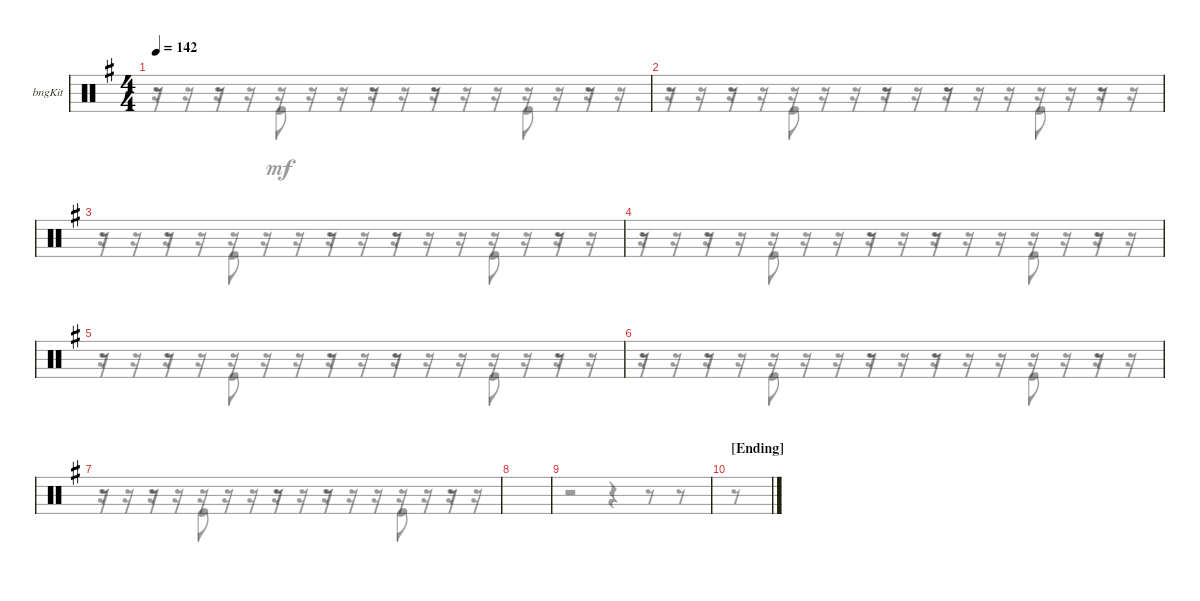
\bracketExtendMode groupsimilarinstruments
\firstSystemTrackNameOrientation horizontal
\otherSystemsTrackNameOrientation horizontal
\track ("Bongos" "bngKit") {instrument percussion}
\staff {score}
\articulation defaults
\voice
\ts (4 4)
\tempo 142
\clef neutral
\ks eminor
|
|
|
|
|
|
|
|
|
\section ("" "[Ending] ")
|
\voice
\clef neutral
\ks eminor
r.16{dy mf} r.16 r.16 r.16 r.16 r.16 r.16 r.16 r.16 r.16 r.16 r.16 r.16 r.16 r.16 r.16 |
r.16 r.16 r.16 r.16 r.16 r.16 r.16 r.16 r.16 r.16 r.16 r.16 r.16 r.16 r.16 r.16 |
r.16 r.16 r.16 r.16 r.16 r.16 r.16 r.16 r.16 r.16 r.16 r.16 r.16 r.16 r.16 r.16 |
r.16 r.16 r.16 r.16 r.16 r.16 r.16 r.16 r.16 r.16 r.16 r.16 r.16 r.16 r.16 r.16 |
r.16 r.16 r.16 r.16 r.16 r.16 r.16 r.16 r.16 r.16 r.16 r.16 r.16 r.16 r.16 r.16 |
r.16 r.16 r.16 r.16 r.16 r.16 r.16 r.16 r.16 r.16 r.16 r.16 r.16 r.16 r.16 r.16 |
r.16 r.16 r.16 r.16 r.16 r.16 r.16 r.16 r.16 r.16 r.16 r.16 r.16 r.16 r.16 r.16 |
|
r.2 r.4 r.8 r.8 |
r.8 |
\voice
\clef neutral
\ottava regular
\simile none
\ks eminor
r.16{dy mf} r.16 r.16 r.16 r.16 r.16 r.16 r.16 r.16 r.16 r.16 r.16 r.16 r.16 r.16 r.16 |
r.16 r.16 r.16 r.16 r.16 r.16 r.16 r.16 r.16 r.16 r.16 r.16 r.16 r.16 r.16 r.16 |
r.16 r.16 r.16 r.16 r.16 r.16 r.16 r.16 r.16 r.16 r.16 r.16 r.16 r.16 r.16 r.16 |
r.16 r.16 r.16 r.16 r.16 r.16 r.16 r.16 r.16 r.16 r.16 r.16 r.16 r.16 r.16 r.16 |
r.16 r.16 r.16 r.16 r.16 r.16 r.16 r.16 r.16 r.16 r.16 r.16 r.16 r.16 r.16 r.16 |
r.16 r.16 r.16 r.16 r.16 r.16 r.16 r.16 r.16 r.16 r.16 r.16 r.16 r.16 r.16 r.16 |
r.16 r.16 r.16 r.16 r.16 r.16 r.16 r.16 r.16 r.16 r.16 r.16 r.16 r.16 r.16 r.16 |
|
|
|
\voice
\clef neutral
\ottava regular
\simile none
\ks eminor
r.8{dy mf} r.8 "Kick (hit)".8 r.16 r.8 r.8 r.16 "Kick (hit)".8 r.8 |
r.8 r.8 "Kick (hit)".8 r.16 r.8 r.8 r.16 "Kick (hit)".8 r.8 |
r.8 r.8 "Kick (hit)".8 r.16 r.8 r.8 r.16 "Kick (hit)".8 r.8 |
r.8 r.8 "Kick (hit)".8 r.16 r.8 r.8 r.16 "Kick (hit)".8 r.8 |
r.8 r.8 "Kick (hit)".8 r.16 r.8 r.8 r.16 "Kick (hit)".8 r.8 |
r.8 r.8 "Kick (hit)".8 r.16 r.8 r.8 r.16 "Kick (hit)".8 r.8 |
r.8 r.8 "Kick (hit)".8 r.16 r.8 r.8 r.16 "Kick (hit)".8 r.8 |
|
|
|
